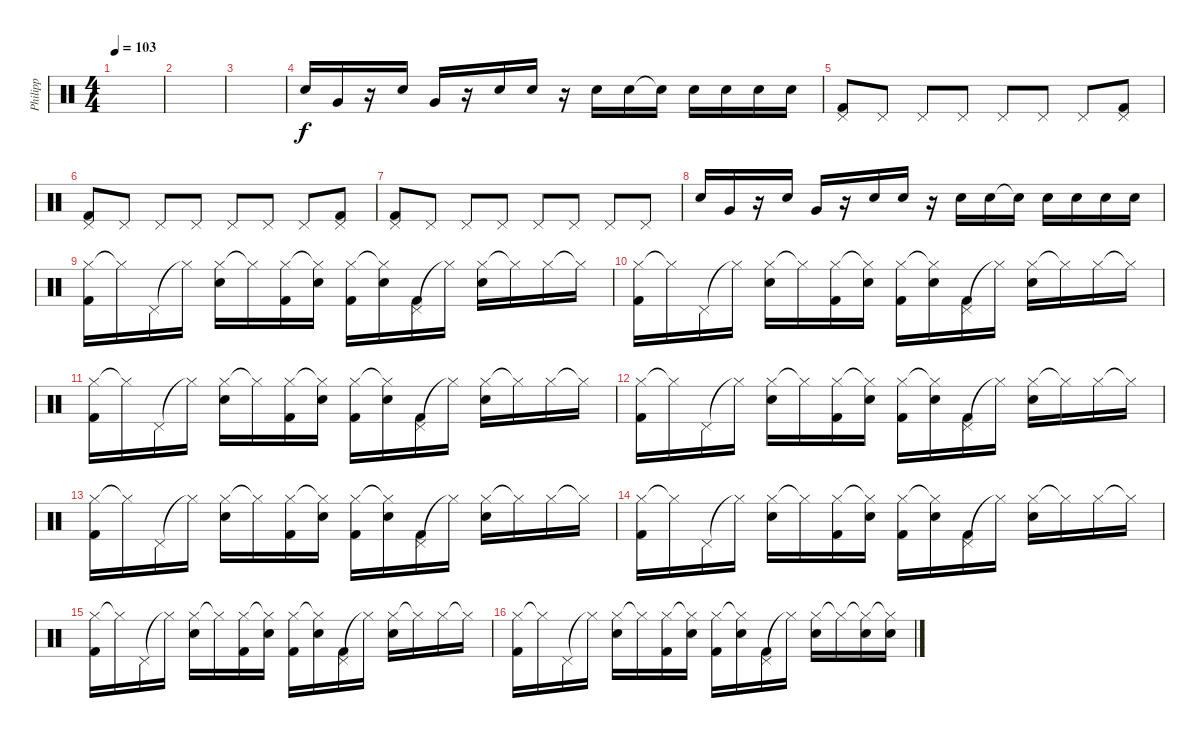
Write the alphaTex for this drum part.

\track ("Philipp" "Philipp") {instrument percussion}
\staff {score}
\articulation defaults
\ts (4 4)
\tempo 103
\clef neutral
\ks c
|
|
|
"Electric Snare (hit)".16 "Very Low Tom (hit)".16 r.16 "Electric Snare (hit)".16 "Very Low Tom (hit)".16 r.16 "Electric Snare (hit)".16 "Electric Snare (hit)".16 r.16 "Electric Snare (hit)".16 "Electric Snare (hit)".16 "Snare (hit)"{t}.16 "Electric Snare (hit)".16 "Electric Snare (hit)".16 "Electric Snare (hit)".16 "Electric Snare (hit)".16 |
("Pedal Hi-Hat (hit)" "Kick (hit) 2").8 "Pedal Hi-Hat (hit)".8 "Pedal Hi-Hat (hit)".8 "Pedal Hi-Hat (hit)".8 "Pedal Hi-Hat (hit)".8 "Pedal Hi-Hat (hit)".8 "Pedal Hi-Hat (hit)".8 ("Pedal Hi-Hat (hit)" "Kick (hit) 2").8 |
("Pedal Hi-Hat (hit)" "Kick (hit) 2").8 "Pedal Hi-Hat (hit)".8 "Pedal Hi-Hat (hit)".8 "Pedal Hi-Hat (hit)".8 "Pedal Hi-Hat (hit)".8 "Pedal Hi-Hat (hit)".8 "Pedal Hi-Hat (hit)".8 ("Pedal Hi-Hat (hit)" "Kick (hit) 2").8 |
("Pedal Hi-Hat (hit)" "Kick (hit) 2").8 "Pedal Hi-Hat (hit)".8 "Pedal Hi-Hat (hit)".8 "Pedal Hi-Hat (hit)".8 "Pedal Hi-Hat (hit)".8 "Pedal Hi-Hat (hit)".8 "Pedal Hi-Hat (hit)".8 "Pedal Hi-Hat (hit)".8 |
"Electric Snare (hit)".16 "Very Low Tom (hit)".16 r.16 "Electric Snare (hit)".16 "Very Low Tom (hit)".16 r.16 "Electric Snare (hit)".16 "Electric Snare (hit)".16 r.16 "Electric Snare (hit)".16 "Electric Snare (hit)".16 "Snare (hit)"{t}.16 "Electric Snare (hit)".16 "Electric Snare (hit)".16 "Electric Snare (hit)".16 "Electric Snare (hit)".16 |
("Hi-Hat (closed)" "Kick (hit) 2").16 "Hi-Hat (closed)"{t}.16 "Pedal Hi-Hat (hit)".16 "Hi-Hat (closed)"{t}.16 ("Hi-Hat (closed)" "Electric Snare (hit)").16 "Hi-Hat (closed)"{t}.16 ("Hi-Hat (closed)" "Kick (hit) 2").16 ("Hi-Hat (closed)"{t} "Electric Snare (hit)").16 ("Hi-Hat (closed)" "Kick (hit) 2").16 ("Hi-Hat (closed)"{t} "Electric Snare (hit)").16 ("Pedal Hi-Hat (hit)" "Kick (hit) 2").16 "Hi-Hat (closed)"{t}.16 ("Hi-Hat (closed)" "Electric Snare (hit)").16 "Hi-Hat (closed)"{t}.16 "Hi-Hat (closed)".16 "Hi-Hat (closed)"{t}.16 |
("Hi-Hat (closed)" "Kick (hit) 2").16 "Hi-Hat (closed)"{t}.16 "Pedal Hi-Hat (hit)".16 "Hi-Hat (closed)"{t}.16 ("Hi-Hat (closed)" "Electric Snare (hit)").16 "Hi-Hat (closed)"{t}.16 ("Hi-Hat (closed)" "Kick (hit) 2").16 ("Hi-Hat (closed)"{t} "Electric Snare (hit)").16 ("Hi-Hat (closed)" "Kick (hit) 2").16 ("Hi-Hat (closed)"{t} "Electric Snare (hit)").16 ("Pedal Hi-Hat (hit)" "Kick (hit) 2").16 "Hi-Hat (closed)"{t}.16 ("Hi-Hat (closed)" "Electric Snare (hit)").16 "Hi-Hat (closed)"{t}.16 "Hi-Hat (closed)".16 "Hi-Hat (closed)"{t}.16 |
("Hi-Hat (closed)" "Kick (hit) 2").16 "Hi-Hat (closed)"{t}.16 "Pedal Hi-Hat (hit)".16 "Hi-Hat (closed)"{t}.16 ("Hi-Hat (closed)" "Electric Snare (hit)").16 "Hi-Hat (closed)"{t}.16 ("Hi-Hat (closed)" "Kick (hit) 2").16 ("Hi-Hat (closed)"{t} "Electric Snare (hit)").16 ("Hi-Hat (closed)" "Kick (hit) 2").16 ("Hi-Hat (closed)"{t} "Electric Snare (hit)").16 ("Pedal Hi-Hat (hit)" "Kick (hit) 2").16 "Hi-Hat (closed)"{t}.16 ("Hi-Hat (closed)" "Electric Snare (hit)").16 "Hi-Hat (closed)"{t}.16 "Hi-Hat (closed)".16 "Hi-Hat (closed)"{t}.16 |
("Hi-Hat (closed)" "Kick (hit) 2").16 "Hi-Hat (closed)"{t}.16 "Pedal Hi-Hat (hit)".16 "Hi-Hat (closed)"{t}.16 ("Hi-Hat (closed)" "Electric Snare (hit)").16 "Hi-Hat (closed)"{t}.16 ("Hi-Hat (closed)" "Kick (hit) 2").16 ("Hi-Hat (closed)"{t} "Electric Snare (hit)").16 ("Hi-Hat (closed)" "Kick (hit) 2").16 ("Hi-Hat (closed)"{t} "Electric Snare (hit)").16 ("Pedal Hi-Hat (hit)" "Kick (hit) 2").16 "Hi-Hat (closed)"{t}.16 ("Hi-Hat (closed)" "Electric Snare (hit)").16 "Hi-Hat (closed)"{t}.16 "Hi-Hat (closed)".16 "Hi-Hat (closed)"{t}.16 |
("Hi-Hat (closed)" "Kick (hit) 2").16 "Hi-Hat (closed)"{t}.16 "Pedal Hi-Hat (hit)".16 "Hi-Hat (closed)"{t}.16 ("Hi-Hat (closed)" "Electric Snare (hit)").16 "Hi-Hat (closed)"{t}.16 ("Hi-Hat (closed)" "Kick (hit) 2").16 ("Hi-Hat (closed)"{t} "Electric Snare (hit)").16 ("Hi-Hat (closed)" "Kick (hit) 2").16 ("Hi-Hat (closed)"{t} "Electric Snare (hit)").16 ("Pedal Hi-Hat (hit)" "Kick (hit) 2").16 "Hi-Hat (closed)"{t}.16 ("Hi-Hat (closed)" "Electric Snare (hit)").16 "Hi-Hat (closed)"{t}.16 "Hi-Hat (closed)".16 "Hi-Hat (closed)"{t}.16 |
("Hi-Hat (closed)" "Kick (hit) 2").16 "Hi-Hat (closed)"{t}.16 "Pedal Hi-Hat (hit)".16 "Hi-Hat (closed)"{t}.16 ("Hi-Hat (closed)" "Electric Snare (hit)").16 "Hi-Hat (closed)"{t}.16 ("Hi-Hat (closed)" "Kick (hit) 2").16 ("Hi-Hat (closed)"{t} "Electric Snare (hit)").16 ("Hi-Hat (closed)" "Kick (hit) 2").16 ("Hi-Hat (closed)"{t} "Electric Snare (hit)").16 ("Pedal Hi-Hat (hit)" "Kick (hit) 2").16 "Hi-Hat (closed)"{t}.16 ("Hi-Hat (closed)" "Electric Snare (hit)").16 "Hi-Hat (closed)"{t}.16 "Hi-Hat (closed)".16 "Hi-Hat (closed)"{t}.16 |
("Hi-Hat (closed)" "Kick (hit) 2").16 "Hi-Hat (closed)"{t}.16 "Pedal Hi-Hat (hit)".16 "Hi-Hat (closed)"{t}.16 ("Hi-Hat (closed)" "Electric Snare (hit)").16 "Hi-Hat (closed)"{t}.16 ("Hi-Hat (closed)" "Kick (hit) 2").16 ("Hi-Hat (closed)"{t} "Electric Snare (hit)").16 ("Hi-Hat (closed)" "Kick (hit) 2").16 ("Hi-Hat (closed)"{t} "Electric Snare (hit)").16 ("Pedal Hi-Hat (hit)" "Kick (hit) 2").16 "Hi-Hat (closed)"{t}.16 ("Hi-Hat (closed)" "Electric Snare (hit)").16 "Hi-Hat (closed)"{t}.16 "Hi-Hat (closed)".16 "Hi-Hat (closed)"{t}.16 |
("Hi-Hat (closed)" "Kick (hit) 2").16 "Hi-Hat (closed)"{t}.16 "Pedal Hi-Hat (hit)".16 "Hi-Hat (closed)"{t}.16 ("Hi-Hat (closed)" "Electric Snare (hit)").16 "Hi-Hat (closed)"{t}.16 ("Hi-Hat (closed)" "Kick (hit) 2").16 ("Hi-Hat (closed)"{t} "Electric Snare (hit)").16 ("Hi-Hat (closed)" "Kick (hit) 2").16 ("Hi-Hat (closed)"{t} "Electric Snare (hit)").16 ("Pedal Hi-Hat (hit)" "Kick (hit) 2").16 "Hi-Hat (closed)"{t}.16 ("Hi-Hat (closed)" "Electric Snare (hit)").16 "Hi-Hat (closed)"{t}.16 ("Hi-Hat (closed)"{t} "Electric Snare (hit)").16 ("Hi-Hat (closed)"{t} "Electric Snare (hit)").16
